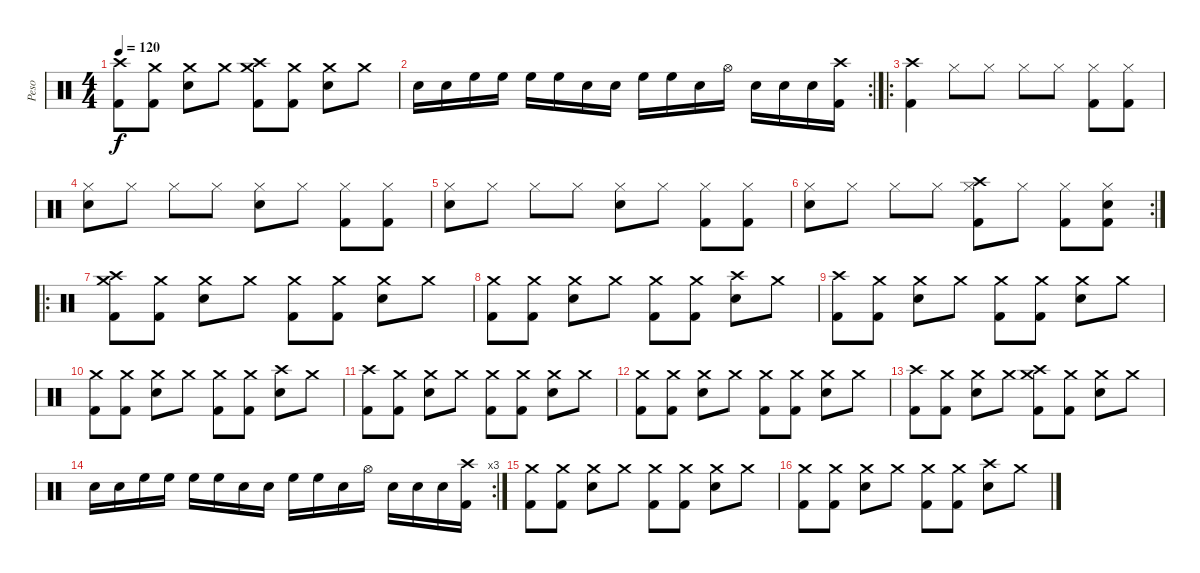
\track ("Peso" "Peso") {instrument percussion}
\staff {score}
\articulation defaults
\ts (4 4)
\tempo 120
\clef neutral
\ks c
("Crash high (hit)" "Kick (hit) 2").8{dy f} ("Crash medium (hit)" "Kick (hit) 2").8 ("Crash medium (hit)" "Snare (hit) 2").8 "Crash medium (hit)".8 ("Crash high (hit)" "Crash medium (hit)" "Kick (hit) 2").8 ("Crash medium (hit)" "Kick (hit) 2").8 ("Crash medium (hit)" "Snare (hit) 2").8 "Crash medium (hit)".8 |
\rc 2 "Snare (hit) 2".16 "Snare (hit) 2".16 "High Floor Tom (hit)".16 "High Floor Tom (hit)".16 "High Floor Tom (hit)".16 "High Floor Tom (hit)".16 "Snare (hit) 2".16 "Snare (hit) 2".16 "High Floor Tom (hit)".16 "High Floor Tom (hit)".16 "Snare (hit) 2".16 "Hi-Hat (open)".16 "Snare (hit) 2".16 "Snare (hit) 2".16 "Snare (hit) 2".16
("Crash high (hit)" "Kick (hit) 2").16 |
\ro
("Crash high (hit)" "Kick (hit) 2").4 "Hi-Hat (closed)".8 "Hi-Hat (closed)".8 "Hi-Hat (closed)".8 "Hi-Hat (closed)".8 ("Hi-Hat (closed)" "Kick (hit) 2").8 ("Hi-Hat (closed)" "Kick (hit) 2").8 |
("Hi-Hat (closed)" "Snare (hit) 2").8 "Hi-Hat (closed)".8 "Hi-Hat (closed)".8 "Hi-Hat (closed)".8 ("Hi-Hat (closed)" "Snare (hit) 2").8 "Hi-Hat (closed)".8 ("Hi-Hat (closed)" "Kick (hit) 2").8 ("Hi-Hat (closed)" "Kick (hit) 2").8 |
("Hi-Hat (closed)" "Snare (hit) 2").8 "Hi-Hat (closed)".8 "Hi-Hat (closed)".8 "Hi-Hat (closed)".8 ("Hi-Hat (closed)" "Snare (hit) 2").8 "Hi-Hat (closed)".8 ("Hi-Hat (closed)" "Kick (hit) 2").8 ("Hi-Hat (closed)" "Kick (hit) 2").8 |
\rc 2
("Hi-Hat (closed)" "Snare (hit) 2").8 "Hi-Hat (closed)".8 "Hi-Hat (closed)".8 "Hi-Hat (closed)".8 ("Crash high (hit)" "Hi-Hat (closed)" "Kick (hit) 2").8 "Hi-Hat (closed)".8 ("Hi-Hat (closed)" "Kick (hit) 2").8 ("Hi-Hat (closed)" "Snare (hit) 2" "Kick (hit) 2").8 |
\ro
("Crash high (hit)" "Crash medium (hit)" "Kick (hit) 2").8 ("Crash medium (hit)" "Kick (hit) 2").8 ("Crash medium (hit)" "Snare (hit) 2").8 "Crash medium (hit)".8 ("Crash medium (hit)" "Kick (hit) 2").8 ("Crash medium (hit)" "Kick (hit) 2").8 ("Crash medium (hit)" "Snare (hit) 2").8 "Crash medium (hit)".8 |
("Crash medium (hit)" "Kick (hit) 2").8 ("Crash medium (hit)" "Kick (hit) 2").8 ("Crash medium (hit)" "Snare (hit) 2").8 "Crash medium (hit)".8 ("Crash medium (hit)" "Kick (hit) 2").8 ("Crash medium (hit)" "Kick (hit) 2").8 ("Crash high (hit)" "Snare (hit) 2").8 "Crash medium (hit)".8 |
("Crash high (hit)" "Kick (hit) 2").8 ("Crash medium (hit)" "Kick (hit) 2").8 ("Crash medium (hit)" "Snare (hit) 2").8 "Crash medium (hit)".8 ("Crash medium (hit)" "Kick (hit) 2").8 ("Crash medium (hit)" "Kick (hit) 2").8 ("Crash medium (hit)" "Snare (hit) 2").8 "Crash medium (hit)".8 |
("Crash medium (hit)" "Kick (hit) 2").8 ("Crash medium (hit)" "Kick (hit) 2").8 ("Crash medium (hit)" "Snare (hit) 2").8 "Crash medium (hit)".8 ("Crash medium (hit)" "Kick (hit) 2").8 ("Crash medium (hit)" "Kick (hit) 2").8 ("Crash high (hit)" "Snare (hit) 2").8 "Crash medium (hit)".8 |
("Crash high (hit)" "Kick (hit) 2").8 ("Crash medium (hit)" "Kick (hit) 2").8 ("Crash medium (hit)" "Snare (hit) 2").8 "Crash medium (hit)".8 ("Crash medium (hit)" "Kick (hit) 2").8 ("Crash medium (hit)" "Kick (hit) 2").8 ("Crash medium (hit)" "Snare (hit) 2").8 "Crash medium (hit)".8 |
("Crash medium (hit)" "Kick (hit) 2").8 ("Crash medium (hit)" "Kick (hit) 2").8 ("Crash medium (hit)" "Snare (hit) 2").8 "Crash medium (hit)".8 ("Crash medium (hit)" "Kick (hit) 2").8 ("Crash medium (hit)" "Kick (hit) 2").8 ("Crash medium (hit)" "Snare (hit) 2").8 "Crash medium (hit)".8 |
("Crash high (hit)" "Kick (hit) 2").8 ("Crash medium (hit)" "Kick (hit) 2").8 ("Crash medium (hit)" "Snare (hit) 2").8 "Crash medium (hit)".8 ("Crash high (hit)" "Crash medium (hit)" "Kick (hit) 2").8 ("Crash medium (hit)" "Kick (hit) 2").8 ("Crash medium (hit)" "Snare (hit) 2").8 "Crash medium (hit)".8 |
\rc 3 "Snare (hit) 2".16 "Snare (hit) 2".16 "High Floor Tom (hit)".16 "High Floor Tom (hit)".16 "High Floor Tom (hit)".16 "High Floor Tom (hit)".16 "Snare (hit) 2".16 "Snare (hit) 2".16 "High Floor Tom (hit)".16 "High Floor Tom (hit)".16 "Snare (hit) 2".16 "Hi-Hat (open)".16 "Snare (hit) 2".16 "Snare (hit) 2".16 "Snare (hit) 2".16
("Crash high (hit)" "Kick (hit) 2").16 |
("Crash medium (hit)" "Kick (hit) 2").8 ("Crash medium (hit)" "Kick (hit) 2").8 ("Crash medium (hit)" "Snare (hit) 2").8 "Crash medium (hit)".8 ("Crash medium (hit)" "Kick (hit) 2").8 ("Crash medium (hit)" "Kick (hit) 2").8 ("Crash medium (hit)" "Snare (hit) 2").8 "Crash medium (hit)".8 |
("Crash medium (hit)" "Kick (hit) 2").8 ("Crash medium (hit)" "Kick (hit) 2").8 ("Crash medium (hit)" "Snare (hit) 2").8 "Crash medium (hit)".8 ("Crash medium (hit)" "Kick (hit) 2").8 ("Crash medium (hit)" "Kick (hit) 2").8 ("Crash high (hit)" "Snare (hit) 2").8 "Crash medium (hit)".8
